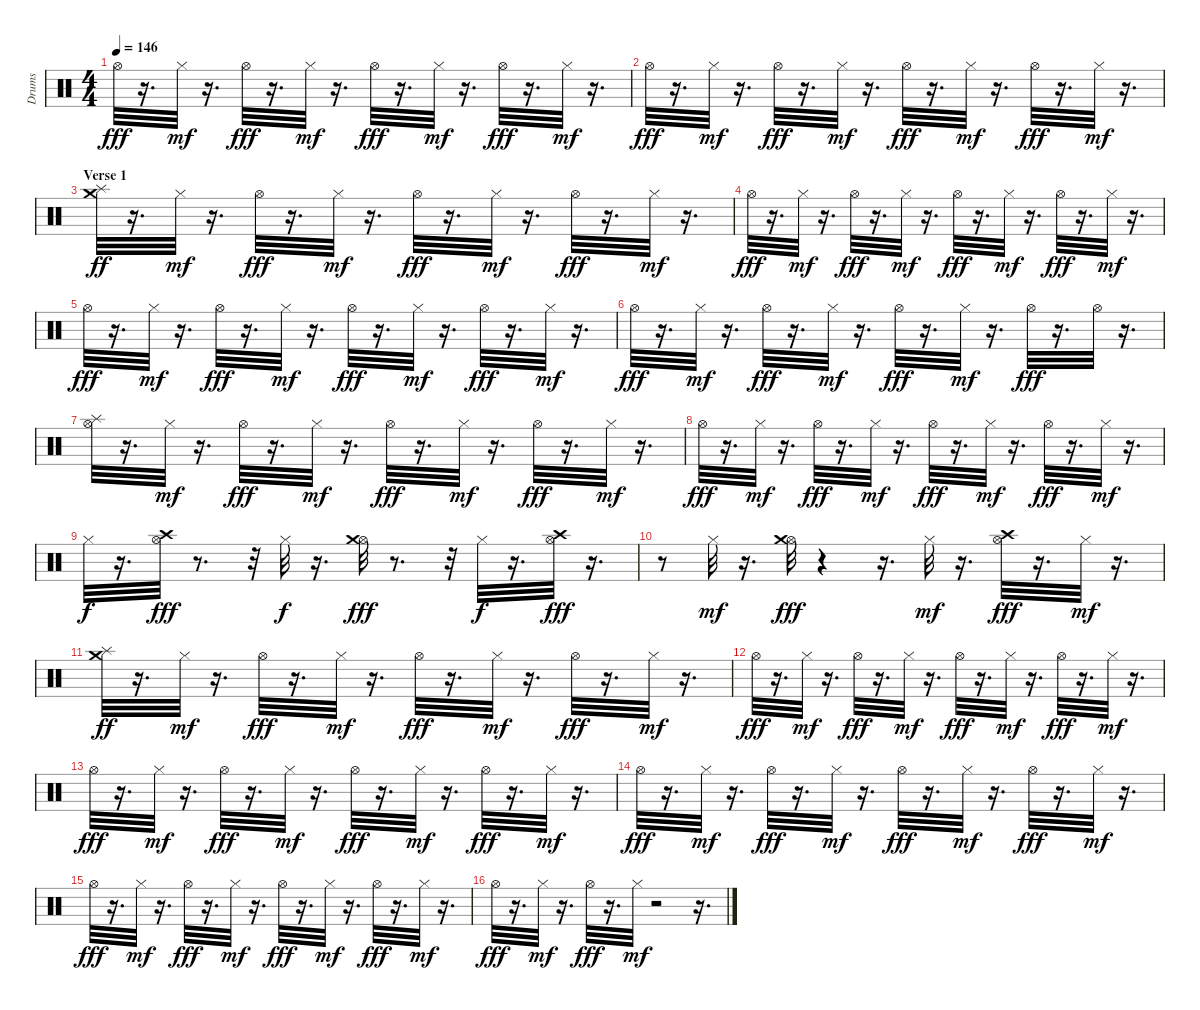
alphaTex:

\track ("Drums" "Drums") {instrument percussion}
\staff {score}
\articulation defaults
\ts (4 4)
\tempo 146
\clef neutral
\ks c "Hi-Hat (open)".32{dy fff}
r.16{d} "Hi-Hat (closed)".32{dy mf} r.16{d} "Hi-Hat (open)".32{dy fff} r.16{d} "Hi-Hat (closed)".32{dy mf} r.16{d} "Hi-Hat (open)".32{dy fff} r.16{d} "Hi-Hat (closed)".32{dy mf} r.16{d} "Hi-Hat (open)".32{dy fff} r.16{d} "Hi-Hat (closed)".32{dy mf} r.16{d} |
"Hi-Hat (open)".32{dy fff} r.16{d} "Hi-Hat (closed)".32{dy mf} r.16{d} "Hi-Hat (open)".32{dy fff} r.16{d} "Hi-Hat (closed)".32{dy mf} r.16{d} "Hi-Hat (open)".32{dy fff} r.16{d} "Hi-Hat (closed)".32{dy mf} r.16{d} "Hi-Hat (open)".32{dy fff} r.16{d} "Hi-Hat (closed)".32{dy mf} r.16{d} |
\section ("" "Verse 1")
("Crash medium (hit)" "Splash (hit)").32{dy ff} r.16{d} "Hi-Hat (closed)".32{dy mf} r.16{d} "Hi-Hat (open)".32{dy fff} r.16{d} "Hi-Hat (closed)".32{dy mf} r.16{d} "Hi-Hat (open)".32{dy fff} r.16{d} "Hi-Hat (closed)".32{dy mf} r.16{d} "Hi-Hat (open)".32{dy fff} r.16{d} "Hi-Hat (closed)".32{dy mf} r.16{d} |
"Hi-Hat (open)".32{dy fff} r.16{d} "Hi-Hat (closed)".32{dy mf} r.16{d} "Hi-Hat (open)".32{dy fff} r.16{d} "Hi-Hat (closed)".32{dy mf} r.16{d} "Hi-Hat (open)".32{dy fff} r.16{d} "Hi-Hat (closed)".32{dy mf} r.16{d} "Hi-Hat (open)".32{dy fff} r.16{d} "Hi-Hat (closed)".32{dy mf} r.16{d} |
"Hi-Hat (open)".32{dy fff} r.16{d} "Hi-Hat (closed)".32{dy mf} r.16{d} "Hi-Hat (open)".32{dy fff} r.16{d} "Hi-Hat (closed)".32{dy mf} r.16{d} "Hi-Hat (open)".32{dy fff} r.16{d} "Hi-Hat (closed)".32{dy mf} r.16{d} "Hi-Hat (open)".32{dy fff} r.16{d} "Hi-Hat (closed)".32{dy mf} r.16{d} |
"Hi-Hat (open)".32{dy fff} r.16{d} "Hi-Hat (closed)".32{dy mf} r.16{d} "Hi-Hat (open)".32{dy fff} r.16{d} "Hi-Hat (closed)".32{dy mf} r.16{d} "Hi-Hat (open)".32{dy fff} r.16{d} "Hi-Hat (closed)".32{dy mf} r.16{d} "Hi-Hat (open)".32{dy fff} r.16{d} "Hi-Hat (open)".32 r.16{d} |
("Hi-Hat (open)" "Splash (hit)").32 r.16{d} "Hi-Hat (closed)".32{dy mf} r.16{d} "Hi-Hat (open)".32{dy fff} r.16{d} "Hi-Hat (closed)".32{dy mf} r.16{d} "Hi-Hat (open)".32{dy fff} r.16{d} "Hi-Hat (closed)".32{dy mf} r.16{d} "Hi-Hat (open)".32{dy fff} r.16{d} "Hi-Hat (closed)".32{dy mf} r.16{d} |
"Hi-Hat (open)".32{dy fff} r.16{d} "Hi-Hat (closed)".32{dy mf} r.16{d} "Hi-Hat (open)".32{dy fff} r.16{d} "Hi-Hat (closed)".32{dy mf} r.16{d} "Hi-Hat (open)".32{dy fff} r.16{d} "Hi-Hat (closed)".32{dy mf} r.16{d} "Hi-Hat (open)".32{dy fff} r.16{d} "Hi-Hat (closed)".32{dy mf} r.16{d} |
"Hi-Hat (closed)".32{dy f} r.16{d} ("Hi-Hat (open)" "Crash high (hit)").32{dy fff} r.8{d} r.32 "Hi-Hat (closed)".32{dy f} r.16{d} ("Hi-Hat (open)" "Crash medium (hit)").32{dy fff} r.8{d} r.32 "Hi-Hat (closed)".32{dy f} r.16{d} ("Hi-Hat (open)" "Crash high (hit)").32{dy fff} r.16{d} |
r.8 "Hi-Hat (closed)".32{dy mf} r.16{d} ("Hi-Hat (open)" "Crash medium (hit)").32{dy fff} r.4 r.16{d} "Hi-Hat (closed)".32{dy mf} r.16{d} ("Hi-Hat (open)" "Crash high (hit)").32{dy fff} r.16{d} "Hi-Hat (closed)".32{dy mf} r.16{d} |
("Crash medium (hit)" "Splash (hit)").32{dy ff} r.16{d} "Hi-Hat (closed)".32{dy mf} r.16{d} "Hi-Hat (open)".32{dy fff} r.16{d} "Hi-Hat (closed)".32{dy mf} r.16{d} "Hi-Hat (open)".32{dy fff} r.16{d} "Hi-Hat (closed)".32{dy mf} r.16{d} "Hi-Hat (open)".32{dy fff} r.16{d} "Hi-Hat (closed)".32{dy mf} r.16{d} |
"Hi-Hat (open)".32{dy fff} r.16{d} "Hi-Hat (closed)".32{dy mf} r.16{d} "Hi-Hat (open)".32{dy fff} r.16{d} "Hi-Hat (closed)".32{dy mf} r.16{d} "Hi-Hat (open)".32{dy fff} r.16{d} "Hi-Hat (closed)".32{dy mf} r.16{d} "Hi-Hat (open)".32{dy fff} r.16{d} "Hi-Hat (closed)".32{dy mf} r.16{d} |
"Hi-Hat (open)".32{dy fff} r.16{d} "Hi-Hat (closed)".32{dy mf} r.16{d} "Hi-Hat (open)".32{dy fff} r.16{d} "Hi-Hat (closed)".32{dy mf} r.16{d} "Hi-Hat (open)".32{dy fff} r.16{d} "Hi-Hat (closed)".32{dy mf} r.16{d} "Hi-Hat (open)".32{dy fff} r.16{d} "Hi-Hat (closed)".32{dy mf} r.16{d} |
"Hi-Hat (open)".32{dy fff} r.16{d} "Hi-Hat (closed)".32{dy mf} r.16{d} "Hi-Hat (open)".32{dy fff} r.16{d} "Hi-Hat (closed)".32{dy mf} r.16{d} "Hi-Hat (open)".32{dy fff} r.16{d} "Hi-Hat (closed)".32{dy mf} r.16{d} "Hi-Hat (open)".32{dy fff} r.16{d} "Hi-Hat (closed)".32{dy mf} r.16{d} |
"Hi-Hat (open)".32{dy fff} r.16{d} "Hi-Hat (closed)".32{dy mf} r.16{d} "Hi-Hat (open)".32{dy fff} r.16{d} "Hi-Hat (closed)".32{dy mf} r.16{d} "Hi-Hat (open)".32{dy fff} r.16{d} "Hi-Hat (closed)".32{dy mf} r.16{d} "Hi-Hat (open)".32{dy fff} r.16{d} "Hi-Hat (closed)".32{dy mf} r.16{d} |
"Hi-Hat (open)".32{dy fff} r.16{d} "Hi-Hat (closed)".32{dy mf} r.16{d} "Hi-Hat (open)".32{dy fff} r.16{d} "Hi-Hat (closed)".32{dy mf} r.2 r.16{d}
